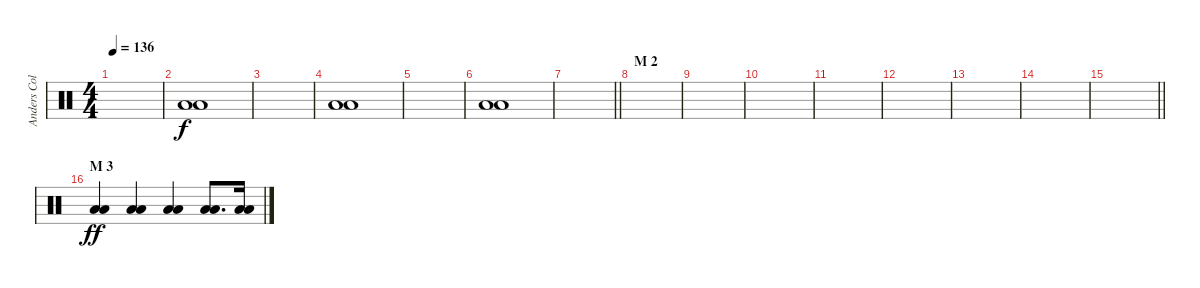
\track ("Anders Colsefni" "Anders Col") {instrument percussion}
\staff {score}
\articulation defaults
\ts (4 4)
\tempo 136
\clef neutral
\ks c
|
("Low Floor Tom (hit)" "Low Floor Tom (hit)").1 |
|
("Low Floor Tom (hit)" "Low Floor Tom (hit)").1 |
|
("Low Floor Tom (hit)" "Low Floor Tom (hit)").1 |
\barLineRight lightlight
|
\section ("" "M 2")
|
|
|
|
|
|
|
\barLineRight lightlight
|
\section ("" "M 3")
("Low Floor Tom (hit)" "Low Floor Tom (hit)").4{dy ff} ("Low Floor Tom (hit)" "Low Floor Tom (hit)").4 ("Low Floor Tom (hit)" "Low Floor Tom (hit)").4 ("Low Floor Tom (hit)" "Low Floor Tom (hit)").8{d} ("Low Floor Tom (hit)" "Low Floor Tom (hit)").16
